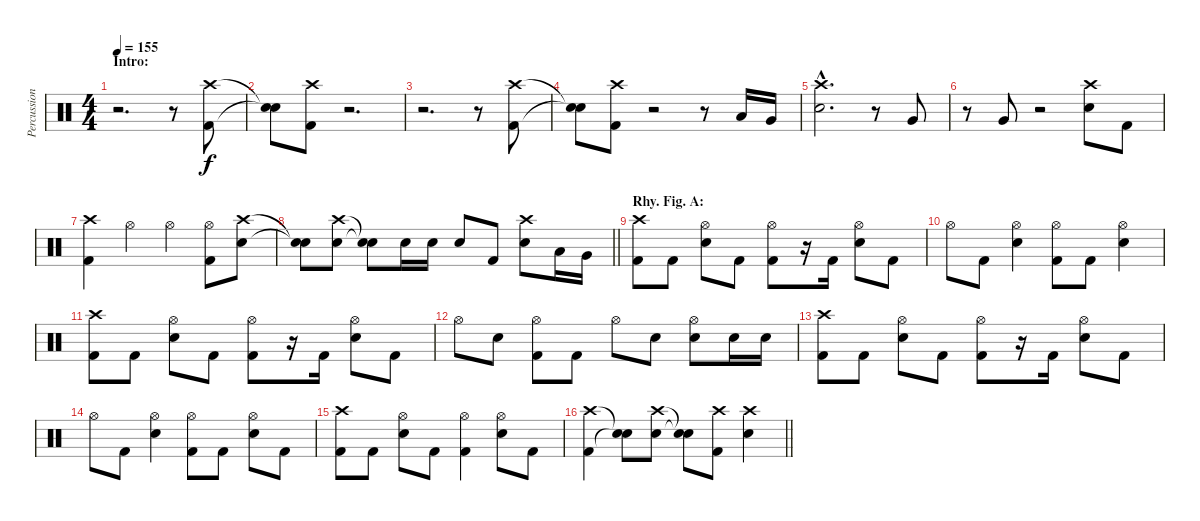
\track ("Percussion" "Percussion") {instrument percussion}
\staff {score}
\articulation defaults
\ts (4 4)
\section ("" "Intro:")
\tempo 155
\clef neutral
\ks c
r.2{d dy f} r.8 ("Crash high (hit)" "Kick (hit) 2").8 |
("Snare (hit)"{t} "Snare (hit)"{t}).8 ("Crash high (hit)" "Kick (hit) 2").8 r.2{d} |
r.2{d} r.8 ("Crash high (hit)" "Kick (hit) 2").8 |
("Snare (hit)"{t} "Snare (hit)"{t}).8 ("Crash high (hit)" "Kick (hit) 2").8 r.2 r.8 "Low Tom (hit)".16 "Very Low Tom (hit)".16 |
("Crash high (hit)"{hac} "Electric Snare (hit)"{hac}).2{d} r.8 "Very Low Tom (hit)".8 |
r.8 "Very Low Tom (hit)".8 r.2 ("Crash high (hit)" "Electric Snare (hit)").8 "Kick (hit) 2".8 |
("Crash high (hit)" "Kick (hit) 2").4 "Hi-Hat (open)".4 "Hi-Hat (open)".4 ("Hi-Hat (open)" "Kick (hit) 2").8 ("Crash high (hit)" "Electric Snare (hit)").8 |
\barLineRight lightlight
("Snare (hit)"{t} "Snare (hit)"{t}).8 ("Crash high (hit)" "Electric Snare (hit)").8 ("Snare (hit)"{t} "Snare (hit)"{t}).8 "Electric Snare (hit)".16 "Electric Snare (hit)".16 "Electric Snare (hit)".8 "Kick (hit) 2".8 ("Crash high (hit)" "Electric Snare (hit)").8 "Low Tom (hit)".16 "Very Low Tom (hit)".16 |
\section ("" "Rhy. Fig. A:")
("Crash high (hit)" "Kick (hit) 2").8 "Kick (hit) 2".8 ("Hi-Hat (open)" "Electric Snare (hit)").8 "Kick (hit) 2".8 ("Hi-Hat (open)" "Kick (hit) 2").8 r.16 "Kick (hit) 2".16 ("Hi-Hat (open)" "Electric Snare (hit)").8 "Kick (hit) 2".8 |
"Hi-Hat (open)".8 "Kick (hit) 2".8 ("Hi-Hat (open)" "Electric Snare (hit)").4 ("Hi-Hat (open)" "Kick (hit) 2").8 "Kick (hit) 2".8 ("Hi-Hat (open)" "Electric Snare (hit)").4 |
("Crash high (hit)" "Kick (hit) 2").8 "Kick (hit) 2".8 ("Hi-Hat (open)" "Electric Snare (hit)").8 "Kick (hit) 2".8 ("Hi-Hat (open)" "Kick (hit) 2").8 r.16 "Kick (hit) 2".16 ("Hi-Hat (open)" "Electric Snare (hit)").8 "Kick (hit) 2".8 |
"Hi-Hat (open)".8 "Electric Snare (hit)".8 ("Hi-Hat (open)" "Kick (hit) 2").8 "Kick (hit) 2".8 "Hi-Hat (open)".8 "Electric Snare (hit)".8 ("Hi-Hat (open)" "Electric Snare (hit)").8 "Electric Snare (hit)".16 "Electric Snare (hit)".16 |
("Crash high (hit)" "Kick (hit) 2").8 "Kick (hit) 2".8 ("Hi-Hat (open)" "Electric Snare (hit)").8 "Kick (hit) 2".8 ("Hi-Hat (open)" "Kick (hit) 2").8 r.16 "Kick (hit) 2".16 ("Hi-Hat (open)" "Electric Snare (hit)").8 "Kick (hit) 2".8 |
"Hi-Hat (open)".8 "Kick (hit) 2".8 ("Hi-Hat (open)" "Electric Snare (hit)").4 ("Hi-Hat (open)" "Kick (hit) 2").8 "Kick (hit) 2".8 ("Hi-Hat (open)" "Electric Snare (hit)").8 "Kick (hit) 2".8 |
("Crash high (hit)" "Kick (hit) 2").8 "Kick (hit) 2".8 ("Hi-Hat (open)" "Electric Snare (hit)").8 "Kick (hit) 2".8 ("Hi-Hat (open)" "Kick (hit) 2").4 ("Hi-Hat (open)" "Electric Snare (hit)").8 "Kick (hit) 2".8 |
\barLineRight lightlight
("Crash high (hit)" "Kick (hit) 2").4 ("Snare (hit)"{t} "Snare (hit)"{t}).8 ("Crash high (hit)" "Electric Snare (hit)").8 ("Snare (hit)"{t} "Snare (hit)"{t}).8 ("Crash high (hit)" "Kick (hit) 2").8 ("Crash high (hit)" "Electric Snare (hit)").4
